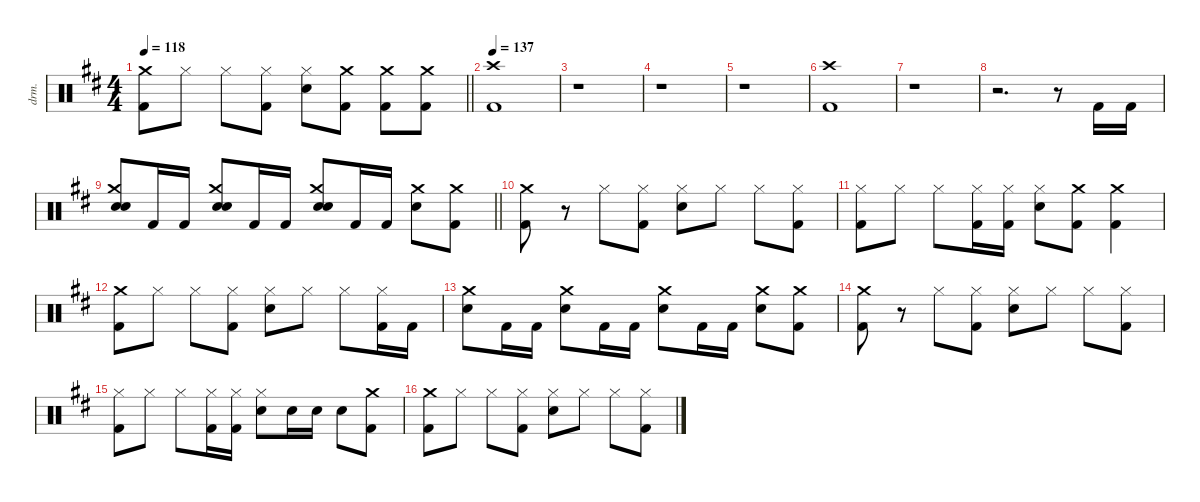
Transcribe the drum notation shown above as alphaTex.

\defaultSystemsLayout 4
\hideDynamics
\bracketExtendMode nobrackets
\otherSystemsTrackNameOrientation horizontal
\track ("Lars - Drums" "drm.") {defaultSystemsLayout 4 instrument percussion}
\staff {score}
\articulation defaults
\ts (4 4)
\tempo 118
\clef neutral
\barLineRight lightlight
\ks bminor
("Crash medium (hit)"{acc forcenatural} "Kick (hit) 2"{acc forcenatural}).8{dy f beam Down} "Hi-Hat (closed)"{acc forcenatural}.8{beam Down} "Hi-Hat (closed)"{acc forcenatural}.8{beam Down} ("Hi-Hat (closed)"{acc forcenatural} "Kick (hit) 2"{acc forcenatural}).8{beam Down} ("Hi-Hat (closed)"{acc forcenatural} "Snare (hit) 2"{acc forcenatural}).8{beam Down} ("Crash medium (hit)"{acc forcenatural} "Kick (hit) 2"{acc forcenatural}).8{beam Down} ("Crash medium (hit)"{acc forcenatural} "Kick (hit) 2"{acc forcenatural}).8{beam Down} ("Crash medium (hit)"{acc forcenatural} "Kick (hit) 2"{acc forcenatural}).8{beam Down} |
\tempo 137
("Crash high (hit)"{acc forcenatural} "Kick (hit) 2"{acc forcenatural}).1{beam Down} |
r.1{beam Down} |
r.1{beam Down} |
r.1{beam Down} |
("Crash high (hit)"{acc forcenatural} "Kick (hit) 2"{acc forcenatural}).1{beam Down} |
r.1{beam Down} |
r.2{d beam Down} r.8{beam Down} "Kick (hit) 2"{acc forcenatural}.16{beam Up} "Kick (hit) 2"{acc forcenatural}.16{beam Up} |
\barLineRight lightlight
("Snare (hit) 2"{acc forcenatural} "Crash medium (hit)"{acc forcenatural} "Snare (hit) 2"{acc forcenatural}).8{dy ff beam Up} "Kick (hit) 2"{acc forcenatural}.16{dy f beam Up} "Kick (hit) 2"{acc forcenatural}.16{beam Up} ("Snare (hit) 2"{acc forcenatural} "Crash medium (hit)"{acc forcenatural} "Snare (hit) 2"{acc forcenatural}).8{dy ff beam Up} "Kick (hit) 2"{acc forcenatural}.16{dy f beam Up} "Kick (hit) 2"{acc forcenatural}.16{beam Up} ("Snare (hit) 2"{acc forcenatural} "Crash medium (hit)"{acc forcenatural} "Snare (hit) 2"{acc forcenatural}).8{dy ff beam Up} "Kick (hit) 2"{acc forcenatural}.16{dy f beam Up} "Kick (hit) 2"{acc forcenatural}.16{beam Up} ("Crash medium (hit)"{acc forcenatural} "Snare (hit) 2"{acc forcenatural}).8{beam Down} ("Crash medium (hit)"{acc forcenatural} "Kick (hit) 2"{acc forcenatural}).8{beam Down} |
("Crash medium (hit)"{acc forcenatural} "Kick (hit) 2"{acc forcenatural}).8{beam Down} r.8{beam Down} "Hi-Hat (closed)"{acc forcenatural}.8{beam Down} ("Hi-Hat (closed)"{acc forcenatural} "Kick (hit) 2"{acc forcenatural}).8{beam Down} ("Hi-Hat (closed)"{acc forcenatural} "Snare (hit) 2"{acc forcenatural}).8{beam Down} "Hi-Hat (closed)"{acc forcenatural}.8{beam Down} "Hi-Hat (closed)"{acc forcenatural}.8{beam Down} ("Hi-Hat (closed)"{acc forcenatural} "Kick (hit) 2"{acc forcenatural}).8{beam Down} |
("Hi-Hat (closed)"{acc forcenatural} "Kick (hit) 2"{acc forcenatural}).8{beam Down} "Hi-Hat (closed)"{acc forcenatural}.8{beam Down} "Hi-Hat (closed)"{acc forcenatural}.8{beam Down} ("Hi-Hat (closed)"{acc forcenatural} "Kick (hit) 2"{acc forcenatural}).16{beam Down} ("Hi-Hat (closed)"{acc forcenatural} "Kick (hit) 2"{acc forcenatural}).16{beam Down} ("Hi-Hat (closed)"{acc forcenatural} "Snare (hit) 2"{acc forcenatural}).8{beam Down} ("Crash medium (hit)"{acc forcenatural} "Kick (hit) 2"{acc forcenatural}).8{beam Down} ("Crash medium (hit)"{acc forcenatural} "Kick (hit) 2"{acc forcenatural}).4{beam Down} |
("Crash medium (hit)"{acc forcenatural} "Kick (hit) 2"{acc forcenatural}).8{beam Down} "Hi-Hat (closed)"{acc forcenatural}.8{beam Down} "Hi-Hat (closed)"{acc forcenatural}.8{beam Down} ("Hi-Hat (closed)"{acc forcenatural} "Kick (hit) 2"{acc forcenatural}).8{beam Down} ("Hi-Hat (closed)"{acc forcenatural} "Snare (hit) 2"{acc forcenatural}).8{beam Down} "Hi-Hat (closed)"{acc forcenatural}.8{beam Down} "Hi-Hat (closed)"{acc forcenatural}.8{beam Down} ("Hi-Hat (closed)"{acc forcenatural} "Kick (hit) 2"{acc forcenatural}).16{beam Down} "Kick (hit) 2"{acc forcenatural}.16{beam Down} |
("Crash medium (hit)"{acc forcenatural} "Snare (hit) 2"{acc forcenatural}).8{beam Down} "Kick (hit) 2"{acc forcenatural}.16{beam Down} "Kick (hit) 2"{acc forcenatural}.16{beam Down} ("Crash medium (hit)"{acc forcenatural} "Snare (hit) 2"{acc forcenatural}).8{beam Down} "Kick (hit) 2"{acc forcenatural}.16{beam Down} "Kick (hit) 2"{acc forcenatural}.16{beam Down} ("Crash medium (hit)"{acc forcenatural} "Snare (hit) 2"{acc forcenatural}).8{beam Down} "Kick (hit) 2"{acc forcenatural}.16{beam Down} "Kick (hit) 2"{acc forcenatural}.16{beam Down} ("Crash medium (hit)"{acc forcenatural} "Snare (hit) 2"{acc forcenatural}).8{beam Down} ("Crash medium (hit)"{acc forcenatural} "Kick (hit) 2"{acc forcenatural}).8{beam Down} |
("Crash medium (hit)"{acc forcenatural} "Kick (hit) 2"{acc forcenatural}).8{beam Down} r.8{beam Down} "Hi-Hat (closed)"{acc forcenatural}.8{beam Down} ("Hi-Hat (closed)"{acc forcenatural} "Kick (hit) 2"{acc forcenatural}).8{beam Down} ("Hi-Hat (closed)"{acc forcenatural} "Snare (hit) 2"{acc forcenatural}).8{beam Down} "Hi-Hat (closed)"{acc forcenatural}.8{beam Down} "Hi-Hat (closed)"{acc forcenatural}.8{beam Down} ("Hi-Hat (closed)"{acc forcenatural} "Kick (hit) 2"{acc forcenatural}).8{beam Down} |
("Hi-Hat (closed)"{acc forcenatural} "Kick (hit) 2"{acc forcenatural}).8{beam Down} "Hi-Hat (closed)"{acc forcenatural}.8{beam Down} "Hi-Hat (closed)"{acc forcenatural}.8{beam Down} ("Hi-Hat (closed)"{acc forcenatural} "Kick (hit) 2"{acc forcenatural}).16{beam Down} ("Hi-Hat (closed)"{acc forcenatural} "Kick (hit) 2"{acc forcenatural}).16{beam Down} ("Hi-Hat (closed)"{acc forcenatural} "Snare (hit) 2"{acc forcenatural}).8{beam Down} "Snare (hit) 2"{acc forcenatural}.16{beam Down} "Snare (hit) 2"{acc forcenatural}.16{beam Down} "Snare (hit) 2"{acc forcenatural}.8{beam Down} ("Crash medium (hit)"{acc forcenatural} "Kick (hit) 2"{acc forcenatural}).8{beam Down} |
("Crash medium (hit)"{acc forcenatural} "Kick (hit) 2"{acc forcenatural}).8{beam Down} "Hi-Hat (closed)"{acc forcenatural}.8{beam Down} "Hi-Hat (closed)"{acc forcenatural}.8{beam Down} ("Hi-Hat (closed)"{acc forcenatural} "Kick (hit) 2"{acc forcenatural}).8{beam Down} ("Hi-Hat (closed)"{acc forcenatural} "Snare (hit) 2"{acc forcenatural}).8{beam Down} "Hi-Hat (closed)"{acc forcenatural}.8{beam Down} "Hi-Hat (closed)"{acc forcenatural}.8{beam Down} ("Hi-Hat (closed)"{acc forcenatural} "Kick (hit) 2"{acc forcenatural}).8{beam Down}
